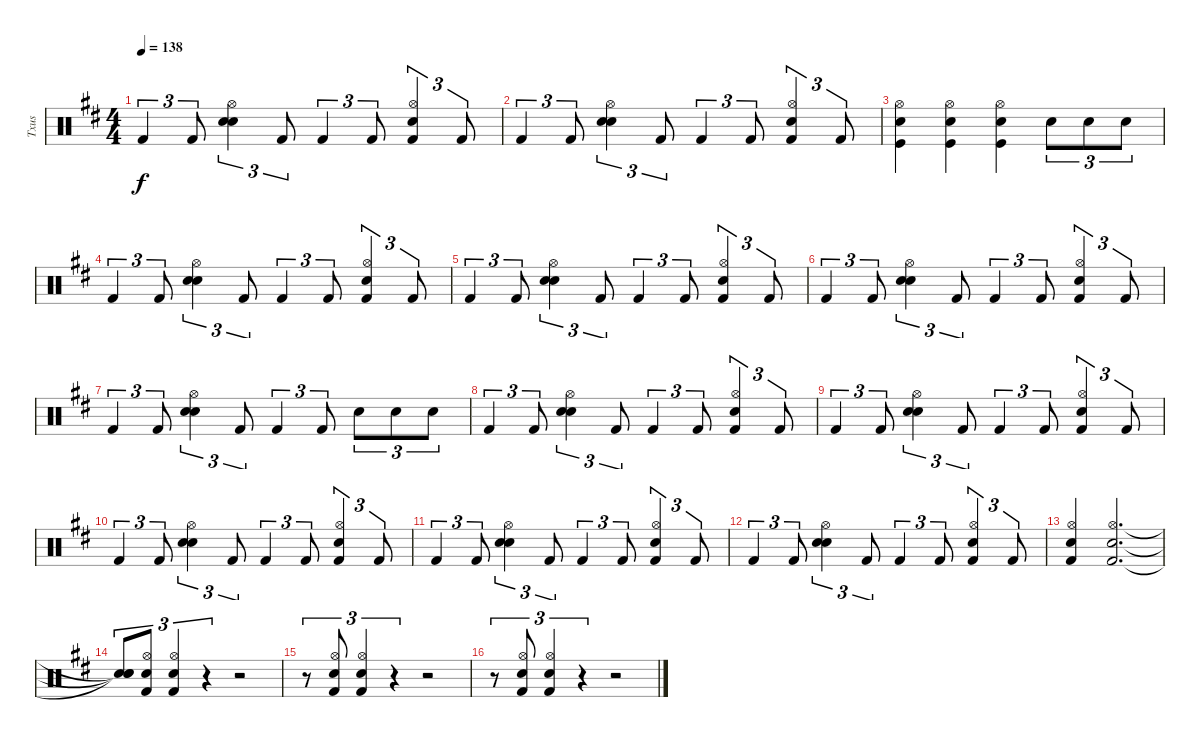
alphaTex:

\track ("Txus" "Txus") {instrument percussion}
\staff {score}
\articulation defaults
\ts (4 4)
\tempo 138
\clef neutral
\ks d "Kick (hit) 2".4{tu (3 2) dy f} "Kick (hit) 2".8{tu (3 2)}
("Hi-Hat (open)" "Electric Snare (hit)" "Snare (hit) 2").4{tu (3 2)} "Kick (hit) 2".8{tu (3 2)} "Kick (hit) 2".4{tu (3 2)} "Kick (hit) 2".8{tu (3 2)} ("Hi-Hat (open)" "Electric Snare (hit)" "Kick (hit) 2").4{tu (3 2)} "Kick (hit) 2".8{tu (3 2)} |
"Kick (hit) 2".4{tu (3 2)} "Kick (hit) 2".8{tu (3 2)} ("Hi-Hat (open)" "Electric Snare (hit)" "Snare (hit) 2").4{tu (3 2)} "Kick (hit) 2".8{tu (3 2)} "Kick (hit) 2".4{tu (3 2)} "Kick (hit) 2".8{tu (3 2)} ("Hi-Hat (open)" "Electric Snare (hit)" "Kick (hit) 2").4{tu (3 2)} "Kick (hit) 2".8{tu (3 2)} |
("Hi-Hat (open)" "Electric Snare (hit)" "Kick (hit)").4 ("Hi-Hat (open)" "Electric Snare (hit)" "Kick (hit)").4 ("Hi-Hat (open)" "Electric Snare (hit)" "Kick (hit)").4 "Electric Snare (hit)".8{tu (3 2)} "Electric Snare (hit)".8{tu (3 2)} "Electric Snare (hit)".8{tu (3 2)} |
"Kick (hit) 2".4{tu (3 2)} "Kick (hit) 2".8{tu (3 2)} ("Hi-Hat (open)" "Electric Snare (hit)" "Snare (hit) 2").4{tu (3 2)} "Kick (hit) 2".8{tu (3 2)} "Kick (hit) 2".4{tu (3 2)} "Kick (hit) 2".8{tu (3 2)} ("Hi-Hat (open)" "Electric Snare (hit)" "Kick (hit) 2").4{tu (3 2)} "Kick (hit) 2".8{tu (3 2)} |
"Kick (hit) 2".4{tu (3 2)} "Kick (hit) 2".8{tu (3 2)} ("Hi-Hat (open)" "Electric Snare (hit)" "Snare (hit) 2").4{tu (3 2)} "Kick (hit) 2".8{tu (3 2)} "Kick (hit) 2".4{tu (3 2)} "Kick (hit) 2".8{tu (3 2)} ("Hi-Hat (open)" "Electric Snare (hit)" "Kick (hit) 2").4{tu (3 2)} "Kick (hit) 2".8{tu (3 2)} |
"Kick (hit) 2".4{tu (3 2)} "Kick (hit) 2".8{tu (3 2)} ("Hi-Hat (open)" "Electric Snare (hit)" "Snare (hit) 2").4{tu (3 2)} "Kick (hit) 2".8{tu (3 2)} "Kick (hit) 2".4{tu (3 2)} "Kick (hit) 2".8{tu (3 2)} ("Hi-Hat (open)" "Electric Snare (hit)" "Kick (hit) 2").4{tu (3 2)} "Kick (hit) 2".8{tu (3 2)} |
"Kick (hit) 2".4{tu (3 2)} "Kick (hit) 2".8{tu (3 2)} ("Hi-Hat (open)" "Electric Snare (hit)" "Snare (hit) 2").4{tu (3 2)} "Kick (hit) 2".8{tu (3 2)} "Kick (hit) 2".4{tu (3 2)} "Kick (hit) 2".8{tu (3 2)} "Electric Snare (hit)".8{tu (3 2)} "Electric Snare (hit)".8{tu (3 2)} "Electric Snare (hit)".8{tu (3 2)} |
"Kick (hit) 2".4{tu (3 2)} "Kick (hit) 2".8{tu (3 2)} ("Hi-Hat (open)" "Electric Snare (hit)" "Snare (hit) 2").4{tu (3 2)} "Kick (hit) 2".8{tu (3 2)} "Kick (hit) 2".4{tu (3 2)} "Kick (hit) 2".8{tu (3 2)} ("Hi-Hat (open)" "Electric Snare (hit)" "Kick (hit) 2").4{tu (3 2)} "Kick (hit) 2".8{tu (3 2)} |
"Kick (hit) 2".4{tu (3 2)} "Kick (hit) 2".8{tu (3 2)} ("Hi-Hat (open)" "Electric Snare (hit)" "Snare (hit) 2").4{tu (3 2)} "Kick (hit) 2".8{tu (3 2)} "Kick (hit) 2".4{tu (3 2)} "Kick (hit) 2".8{tu (3 2)} ("Hi-Hat (open)" "Electric Snare (hit)" "Kick (hit) 2").4{tu (3 2)} "Kick (hit) 2".8{tu (3 2)} |
"Kick (hit) 2".4{tu (3 2)} "Kick (hit) 2".8{tu (3 2)} ("Hi-Hat (open)" "Electric Snare (hit)" "Snare (hit) 2").4{tu (3 2)} "Kick (hit) 2".8{tu (3 2)} "Kick (hit) 2".4{tu (3 2)} "Kick (hit) 2".8{tu (3 2)} ("Hi-Hat (open)" "Electric Snare (hit)" "Kick (hit) 2").4{tu (3 2)} "Kick (hit) 2".8{tu (3 2)} |
"Kick (hit) 2".4{tu (3 2)} "Kick (hit) 2".8{tu (3 2)} ("Hi-Hat (open)" "Electric Snare (hit)" "Snare (hit) 2").4{tu (3 2)} "Kick (hit) 2".8{tu (3 2)} "Kick (hit) 2".4{tu (3 2)} "Kick (hit) 2".8{tu (3 2)} ("Hi-Hat (open)" "Electric Snare (hit)" "Kick (hit) 2").4{tu (3 2)} "Kick (hit) 2".8{tu (3 2)} |
"Kick (hit) 2".4{tu (3 2)} "Kick (hit) 2".8{tu (3 2)} ("Hi-Hat (open)" "Electric Snare (hit)" "Snare (hit) 2").4{tu (3 2)} "Kick (hit) 2".8{tu (3 2)} "Kick (hit) 2".4{tu (3 2)} "Kick (hit) 2".8{tu (3 2)} ("Hi-Hat (open)" "Electric Snare (hit)" "Kick (hit) 2").4{tu (3 2)} "Kick (hit) 2".8{tu (3 2)} |
("Hi-Hat (open)" "Electric Snare (hit)" "Kick (hit) 2").4 ("Hi-Hat (open)" "Electric Snare (hit)" "Kick (hit) 2").2{d} |
("Snare (hit)"{t} "Snare (hit)"{t} "Snare (hit)"{t}).8{tu (3 2)} ("Hi-Hat (open)" "Electric Snare (hit)" "Kick (hit) 2").8{tu (3 2)} ("Hi-Hat (open)" "Electric Snare (hit)" "Kick (hit) 2").4{tu (3 2)} r.4{tu (3 2)} r.2 |
r.8{tu (3 2)} ("Hi-Hat (open)" "Electric Snare (hit)" "Kick (hit) 2").8{tu (3 2)} ("Hi-Hat (open)" "Electric Snare (hit)" "Kick (hit) 2").4{tu (3 2)} r.4{tu (3 2)} r.2 |
r.8{tu (3 2)} ("Hi-Hat (open)" "Electric Snare (hit)" "Kick (hit) 2").8{tu (3 2)} ("Hi-Hat (open)" "Electric Snare (hit)" "Kick (hit) 2").4{tu (3 2)} r.4{tu (3 2)} r.2
